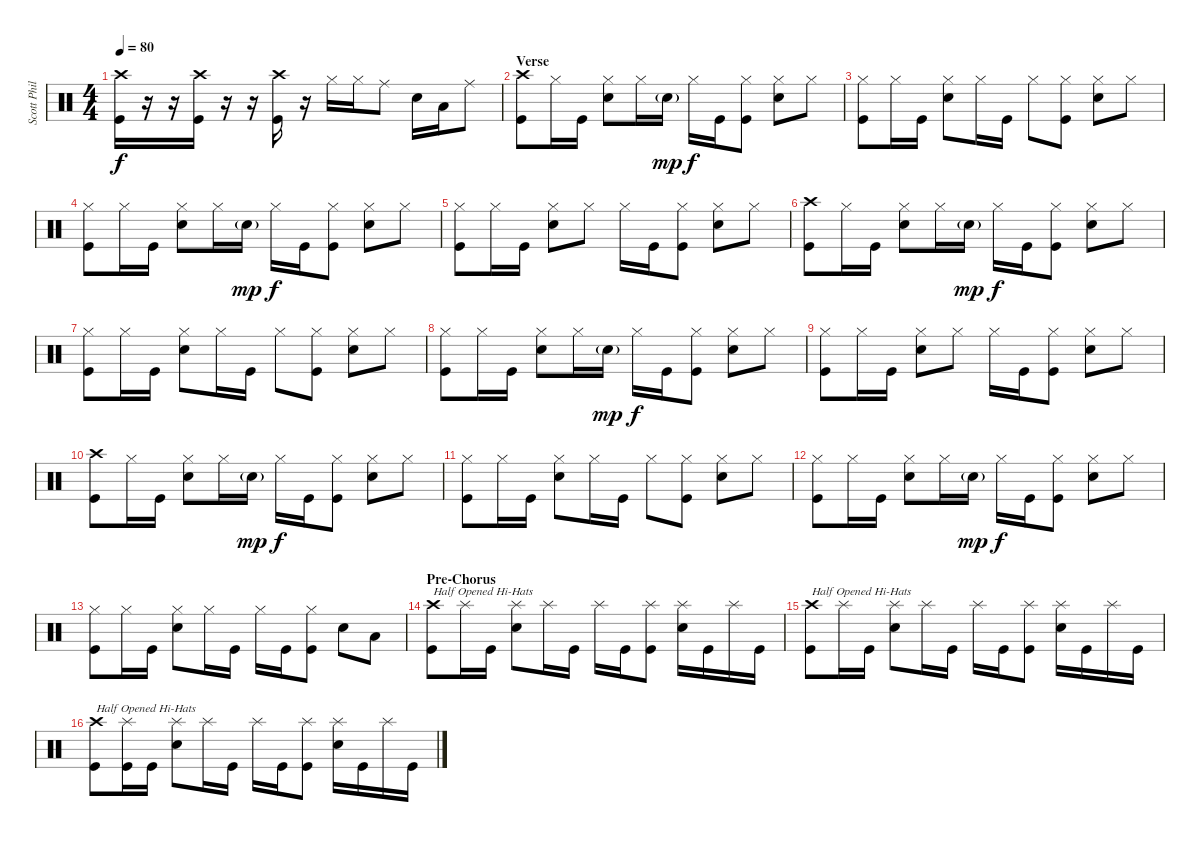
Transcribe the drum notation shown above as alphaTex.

\track ("Scott Phillips" "Scott Phil") {instrument percussion}
\staff {score}
\articulation defaults
\ts (4 4)
\tempo 80
\clef neutral
\ks c
("Crash high (hit)" "Kick (hit)").16{dy f} r.16 r.16 ("Crash high (hit)" "Kick (hit)").16 r.16 r.16 ("Crash high (hit)" "Kick (hit)").16 r.16 "Hi-Hat (closed)".16 "Hi-Hat (closed)".16 "Ride (middle)".8 "Snare (hit) 2".16 "Low Tom (hit)".16 "Ride (middle)".8 |
\section ("" "Verse")
("Crash high (hit)" "Kick (hit)").8 "Hi-Hat (closed)".16 "Kick (hit)".16 ("Hi-Hat (closed)" "Snare (hit) 2").8 "Hi-Hat (closed)".16 "Snare (hit) 2"{g}.16{dy mp} "Hi-Hat (closed)".16{dy f} "Kick (hit)".16 ("Hi-Hat (closed)" "Kick (hit)").8 ("Hi-Hat (closed)" "Snare (hit) 2").8 "Hi-Hat (closed)".8 |
("Hi-Hat (closed)" "Kick (hit)").8 "Hi-Hat (closed)".16 "Kick (hit)".16 ("Hi-Hat (closed)" "Snare (hit) 2").8 "Hi-Hat (closed)".16 "Kick (hit)".16 "Hi-Hat (closed)".8 ("Hi-Hat (closed)" "Kick (hit)").8 ("Hi-Hat (closed)" "Snare (hit) 2").8 "Hi-Hat (closed)".8 |
("Hi-Hat (closed)" "Kick (hit)").8 "Hi-Hat (closed)".16 "Kick (hit)".16 ("Hi-Hat (closed)" "Snare (hit) 2").8 "Hi-Hat (closed)".16 "Snare (hit) 2"{g}.16{dy mp} "Hi-Hat (closed)".16{dy f} "Kick (hit)".16 ("Hi-Hat (closed)" "Kick (hit)").8 ("Hi-Hat (closed)" "Snare (hit) 2").8 "Hi-Hat (closed)".8 |
("Hi-Hat (closed)" "Kick (hit)").8 "Hi-Hat (closed)".16 "Kick (hit)".16 ("Hi-Hat (closed)" "Snare (hit) 2").8 "Hi-Hat (closed)".8 "Hi-Hat (closed)".16 "Kick (hit)".16 ("Hi-Hat (closed)" "Kick (hit)").8 ("Hi-Hat (closed)" "Snare (hit) 2").8 "Hi-Hat (closed)".8 |
("Crash high (hit)" "Kick (hit)").8 "Hi-Hat (closed)".16 "Kick (hit)".16 ("Hi-Hat (closed)" "Snare (hit) 2").8 "Hi-Hat (closed)".16 "Snare (hit) 2"{g}.16{dy mp} "Hi-Hat (closed)".16{dy f} "Kick (hit)".16 ("Hi-Hat (closed)" "Kick (hit)").8 ("Hi-Hat (closed)" "Snare (hit) 2").8 "Hi-Hat (closed)".8 |
("Hi-Hat (closed)" "Kick (hit)").8 "Hi-Hat (closed)".16 "Kick (hit)".16 ("Hi-Hat (closed)" "Snare (hit) 2").8 "Hi-Hat (closed)".16 "Kick (hit)".16 "Hi-Hat (closed)".8 ("Hi-Hat (closed)" "Kick (hit)").8 ("Hi-Hat (closed)" "Snare (hit) 2").8 "Hi-Hat (closed)".8 |
("Hi-Hat (closed)" "Kick (hit)").8 "Hi-Hat (closed)".16 "Kick (hit)".16 ("Hi-Hat (closed)" "Snare (hit) 2").8 "Hi-Hat (closed)".16 "Snare (hit) 2"{g}.16{dy mp} "Hi-Hat (closed)".16{dy f} "Kick (hit)".16 ("Hi-Hat (closed)" "Kick (hit)").8 ("Hi-Hat (closed)" "Snare (hit) 2").8 "Hi-Hat (closed)".8 |
("Hi-Hat (closed)" "Kick (hit)").8 "Hi-Hat (closed)".16 "Kick (hit)".16 ("Hi-Hat (closed)" "Snare (hit) 2").8 "Hi-Hat (closed)".8 "Hi-Hat (closed)".16 "Kick (hit)".16 ("Hi-Hat (closed)" "Kick (hit)").8 ("Hi-Hat (closed)" "Snare (hit) 2").8 "Hi-Hat (closed)".8 |
("Crash high (hit)" "Kick (hit)").8 "Hi-Hat (closed)".16 "Kick (hit)".16 ("Hi-Hat (closed)" "Snare (hit) 2").8 "Hi-Hat (closed)".16 "Snare (hit) 2"{g}.16{dy mp} "Hi-Hat (closed)".16{dy f} "Kick (hit)".16 ("Hi-Hat (closed)" "Kick (hit)").8 ("Hi-Hat (closed)" "Snare (hit) 2").8 "Hi-Hat (closed)".8 |
("Hi-Hat (closed)" "Kick (hit)").8 "Hi-Hat (closed)".16 "Kick (hit)".16 ("Hi-Hat (closed)" "Snare (hit) 2").8 "Hi-Hat (closed)".16 "Kick (hit)".16 "Hi-Hat (closed)".8 ("Hi-Hat (closed)" "Kick (hit)").8 ("Hi-Hat (closed)" "Snare (hit) 2").8 "Hi-Hat (closed)".8 |
("Hi-Hat (closed)" "Kick (hit)").8 "Hi-Hat (closed)".16 "Kick (hit)".16 ("Hi-Hat (closed)" "Snare (hit) 2").8 "Hi-Hat (closed)".16 "Snare (hit) 2"{g}.16{dy mp} "Hi-Hat (closed)".16{dy f} "Kick (hit)".16 ("Hi-Hat (closed)" "Kick (hit)").8 ("Hi-Hat (closed)" "Snare (hit) 2").8 "Hi-Hat (closed)".8 |
("Hi-Hat (closed)" "Kick (hit)").8 "Hi-Hat (closed)".16 "Kick (hit)".16 ("Hi-Hat (closed)" "Snare (hit) 2").8 "Hi-Hat (closed)".16 "Kick (hit)".16 "Hi-Hat (closed)".16 "Kick (hit)".16 ("Hi-Hat (closed)" "Kick (hit)").8 "Snare (hit) 2".8 "Low Tom (hit)".8 |
\section ("" "Pre-Chorus")
("Crash high (hit)" "Kick (hit)").8{txt "Half Opened Hi-Hats"} "Splash (hit)".16 "Kick (hit)".16 ("Splash (hit)" "Snare (hit) 2").8 "Splash (hit)".16 "Kick (hit)".16 "Splash (hit)".16 "Kick (hit)".16 ("Splash (hit)" "Kick (hit)").8 ("Splash (hit)" "Snare (hit) 2").16 "Kick (hit)".16 "Splash (hit)".16 "Kick (hit)".16 |
("Crash high (hit)" "Kick (hit)").8{txt "Half Opened Hi-Hats"} "Splash (hit)".16 "Kick (hit)".16 ("Splash (hit)" "Snare (hit) 2").8 "Splash (hit)".16 "Kick (hit)".16 "Splash (hit)".16 "Kick (hit)".16 ("Splash (hit)" "Kick (hit)").8 ("Splash (hit)" "Snare (hit) 2").16 "Kick (hit)".16 "Splash (hit)".16 "Kick (hit)".16 |
("Crash high (hit)" "Kick (hit)").8{txt "Half Opened Hi-Hats"} ("Splash (hit)" "Kick (hit)").16 "Kick (hit)".16 ("Splash (hit)" "Snare (hit) 2").8 "Splash (hit)".16 "Kick (hit)".16 "Splash (hit)".16 "Kick (hit)".16 ("Splash (hit)" "Kick (hit)").8 ("Splash (hit)" "Snare (hit) 2").16 "Kick (hit)".16 "Splash (hit)".16 "Kick (hit)".16
